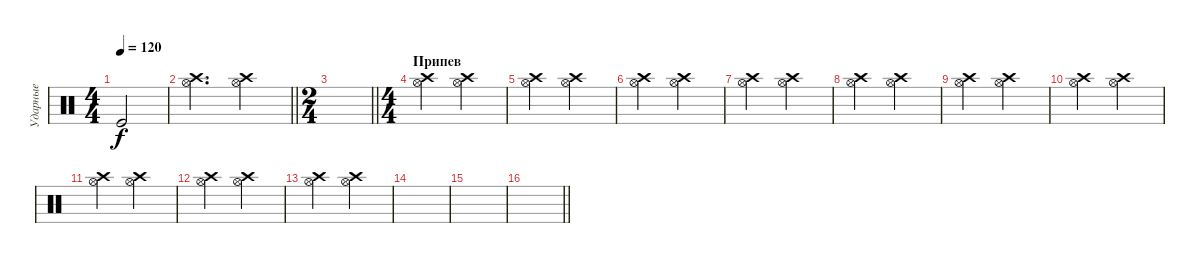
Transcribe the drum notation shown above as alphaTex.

\track ("Ударные" "Ударные") {instrument percussion}
\staff {score}
\articulation defaults
\ts (4 4)
\tempo 120
\clef neutral
\ks c "Kick (hit)".2{dy f}
|
\barLineRight lightlight
("Hi-Hat (open)" "Crash high (hit)").2{d} ("Hi-Hat (open)" "Crash high (hit)").2 |
\ts (2 4)
\barLineRight lightlight
|
\ts (4 4)
\section ("" "Припев")
("Hi-Hat (open)" "Crash high (hit)").4 ("Hi-Hat (open)" "Crash high (hit)").4 |
("Hi-Hat (open)" "Crash high (hit)").4 ("Hi-Hat (open)" "Crash high (hit)").4 |
("Hi-Hat (open)" "Crash high (hit)").4 ("Hi-Hat (open)" "Crash high (hit)").4 |
("Hi-Hat (open)" "Crash high (hit)").4 ("Hi-Hat (open)" "Crash high (hit)").4 |
("Hi-Hat (open)" "Crash high (hit)").4 ("Hi-Hat (open)" "Crash high (hit)").4 |
("Hi-Hat (open)" "Crash high (hit)").4 ("Hi-Hat (open)" "Crash high (hit)").4 |
("Hi-Hat (open)" "Crash high (hit)").4 ("Hi-Hat (open)" "Crash high (hit)").4 |
("Hi-Hat (open)" "Crash high (hit)").4 ("Hi-Hat (open)" "Crash high (hit)").4 |
("Hi-Hat (open)" "Crash high (hit)").4 ("Hi-Hat (open)" "Crash high (hit)").4 |
("Hi-Hat (open)" "Crash high (hit)").4 ("Hi-Hat (open)" "Crash high (hit)").4 |
|
|
\barLineRight lightlight
